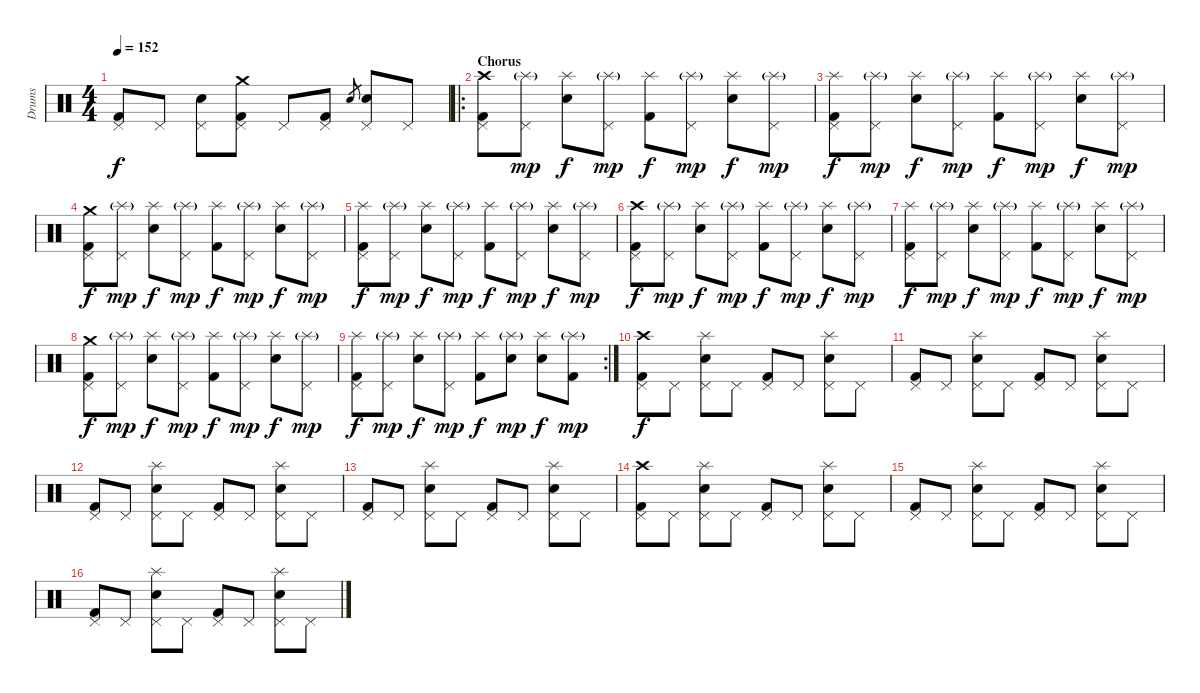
\track ("Drums" "Drums") {instrument percussion}
\staff {score}
\articulation defaults
\ts (4 4)
\tempo 152
\clef neutral
\ks c
("Kick (hit) 2" "Pedal Hi-Hat (hit)").8{dy f} "Pedal Hi-Hat (hit)".8 ("Snare (hit) 2" "Pedal Hi-Hat (hit)").8 ("Kick (hit) 2" "Pedal Hi-Hat (hit)" "Crash medium (hit)").8 "Pedal Hi-Hat (hit)".8 ("Kick (hit) 2" "Pedal Hi-Hat (hit)").8 "Snare (hit) 2".8{gr} ("Snare (hit) 2" "Pedal Hi-Hat (hit)").8 "Pedal Hi-Hat (hit)".8 |
\ro
\section ("" "Chorus")
("Kick (hit) 2" "Pedal Hi-Hat (hit)" "Crash high (hit)").8 ("Pedal Hi-Hat (hit)" "Splash (hit)"{g}).8{dy mp} ("Snare (hit) 2" "Splash (hit)").8{dy f} ("Pedal Hi-Hat (hit)" "Splash (hit)"{g}).8{dy mp} ("Kick (hit) 2" "Splash (hit)").8{dy f} ("Pedal Hi-Hat (hit)" "Splash (hit)"{g}).8{dy mp} ("Snare (hit) 2" "Splash (hit)").8{dy f} ("Pedal Hi-Hat (hit)" "Splash (hit)"{g}).8{dy mp} |
("Kick (hit) 2" "Pedal Hi-Hat (hit)" "Splash (hit)").8{dy f} ("Pedal Hi-Hat (hit)" "Splash (hit)"{g}).8{dy mp} ("Snare (hit) 2" "Splash (hit)").8{dy f} ("Pedal Hi-Hat (hit)" "Splash (hit)"{g}).8{dy mp} ("Kick (hit) 2" "Splash (hit)").8{dy f} ("Pedal Hi-Hat (hit)" "Splash (hit)"{g}).8{dy mp} ("Snare (hit) 2" "Splash (hit)").8{dy f} ("Pedal Hi-Hat (hit)" "Splash (hit)"{g}).8{dy mp} |
("Kick (hit) 2" "Pedal Hi-Hat (hit)" "Crash medium (hit)").8{dy f} ("Pedal Hi-Hat (hit)" "Splash (hit)"{g}).8{dy mp} ("Snare (hit) 2" "Splash (hit)").8{dy f} ("Pedal Hi-Hat (hit)" "Splash (hit)"{g}).8{dy mp} ("Kick (hit) 2" "Splash (hit)").8{dy f} ("Pedal Hi-Hat (hit)" "Splash (hit)"{g}).8{dy mp} ("Snare (hit) 2" "Splash (hit)").8{dy f} ("Pedal Hi-Hat (hit)" "Splash (hit)"{g}).8{dy mp} |
("Kick (hit) 2" "Pedal Hi-Hat (hit)" "Splash (hit)").8{dy f} ("Pedal Hi-Hat (hit)" "Splash (hit)"{g}).8{dy mp} ("Snare (hit) 2" "Splash (hit)").8{dy f} ("Pedal Hi-Hat (hit)" "Splash (hit)"{g}).8{dy mp} ("Kick (hit) 2" "Splash (hit)").8{dy f} ("Pedal Hi-Hat (hit)" "Splash (hit)"{g}).8{dy mp} ("Snare (hit) 2" "Splash (hit)").8{dy f} ("Pedal Hi-Hat (hit)" "Splash (hit)"{g}).8{dy mp} |
("Kick (hit) 2" "Pedal Hi-Hat (hit)" "Crash high (hit)").8{dy f} ("Pedal Hi-Hat (hit)" "Splash (hit)"{g}).8{dy mp} ("Snare (hit) 2" "Splash (hit)").8{dy f} ("Pedal Hi-Hat (hit)" "Splash (hit)"{g}).8{dy mp} ("Kick (hit) 2" "Splash (hit)").8{dy f} ("Pedal Hi-Hat (hit)" "Splash (hit)"{g}).8{dy mp} ("Snare (hit) 2" "Splash (hit)").8{dy f} ("Pedal Hi-Hat (hit)" "Splash (hit)"{g}).8{dy mp} |
("Kick (hit) 2" "Pedal Hi-Hat (hit)" "Splash (hit)").8{dy f} ("Pedal Hi-Hat (hit)" "Splash (hit)"{g}).8{dy mp} ("Snare (hit) 2" "Splash (hit)").8{dy f} ("Pedal Hi-Hat (hit)" "Splash (hit)"{g}).8{dy mp} ("Kick (hit) 2" "Splash (hit)").8{dy f} ("Pedal Hi-Hat (hit)" "Splash (hit)"{g}).8{dy mp} ("Snare (hit) 2" "Splash (hit)").8{dy f} ("Pedal Hi-Hat (hit)" "Splash (hit)"{g}).8{dy mp} |
("Kick (hit) 2" "Pedal Hi-Hat (hit)" "Crash medium (hit)").8{dy f} ("Pedal Hi-Hat (hit)" "Splash (hit)"{g}).8{dy mp} ("Snare (hit) 2" "Splash (hit)").8{dy f} ("Pedal Hi-Hat (hit)" "Splash (hit)"{g}).8{dy mp} ("Kick (hit) 2" "Splash (hit)").8{dy f} ("Pedal Hi-Hat (hit)" "Splash (hit)"{g}).8{dy mp} ("Snare (hit) 2" "Splash (hit)").8{dy f} ("Pedal Hi-Hat (hit)" "Splash (hit)"{g}).8{dy mp} |
\rc 2
("Kick (hit) 2" "Pedal Hi-Hat (hit)" "Splash (hit)").8{dy f} ("Pedal Hi-Hat (hit)" "Splash (hit)"{g}).8{dy mp} ("Snare (hit) 2" "Splash (hit)").8{dy f} ("Pedal Hi-Hat (hit)" "Splash (hit)"{g}).8{dy mp} ("Kick (hit) 2" "Splash (hit)").8{dy f} ("Snare (hit) 2" "Splash (hit)"{g}).8{dy mp} ("Snare (hit) 2" "Splash (hit)").8{dy f} ("Kick (hit) 2" "Splash (hit)"{g}).8{dy mp} |
("Kick (hit) 2" "Pedal Hi-Hat (hit)" "Crash high (hit)").8{dy f} "Pedal Hi-Hat (hit)".8 ("Snare (hit) 2" "Pedal Hi-Hat (hit)" "Splash (hit)").8 "Pedal Hi-Hat (hit)".8 ("Kick (hit) 2" "Pedal Hi-Hat (hit)").8 "Pedal Hi-Hat (hit)".8 ("Snare (hit) 2" "Pedal Hi-Hat (hit)" "Splash (hit)").8 "Pedal Hi-Hat (hit)".8 |
("Kick (hit) 2" "Pedal Hi-Hat (hit)").8 "Pedal Hi-Hat (hit)".8 ("Snare (hit) 2" "Pedal Hi-Hat (hit)" "Splash (hit)").8 "Pedal Hi-Hat (hit)".8 ("Kick (hit) 2" "Pedal Hi-Hat (hit)").8 "Pedal Hi-Hat (hit)".8 ("Snare (hit) 2" "Pedal Hi-Hat (hit)" "Splash (hit)").8 "Pedal Hi-Hat (hit)".8 |
("Kick (hit) 2" "Pedal Hi-Hat (hit)").8 "Pedal Hi-Hat (hit)".8 ("Snare (hit) 2" "Pedal Hi-Hat (hit)" "Splash (hit)").8 "Pedal Hi-Hat (hit)".8 ("Kick (hit) 2" "Pedal Hi-Hat (hit)").8 "Pedal Hi-Hat (hit)".8 ("Snare (hit) 2" "Pedal Hi-Hat (hit)" "Splash (hit)").8 "Pedal Hi-Hat (hit)".8 |
("Kick (hit) 2" "Pedal Hi-Hat (hit)").8 "Pedal Hi-Hat (hit)".8 ("Snare (hit) 2" "Pedal Hi-Hat (hit)" "Splash (hit)").8 "Pedal Hi-Hat (hit)".8 ("Kick (hit) 2" "Pedal Hi-Hat (hit)").8 "Pedal Hi-Hat (hit)".8 ("Snare (hit) 2" "Pedal Hi-Hat (hit)" "Splash (hit)").8 "Pedal Hi-Hat (hit)".8 |
("Kick (hit) 2" "Pedal Hi-Hat (hit)" "Crash high (hit)").8 "Pedal Hi-Hat (hit)".8 ("Snare (hit) 2" "Pedal Hi-Hat (hit)" "Splash (hit)").8 "Pedal Hi-Hat (hit)".8 ("Kick (hit) 2" "Pedal Hi-Hat (hit)").8 "Pedal Hi-Hat (hit)".8 ("Snare (hit) 2" "Pedal Hi-Hat (hit)" "Splash (hit)").8 "Pedal Hi-Hat (hit)".8 |
("Kick (hit) 2" "Pedal Hi-Hat (hit)").8 "Pedal Hi-Hat (hit)".8 ("Snare (hit) 2" "Pedal Hi-Hat (hit)" "Splash (hit)").8 "Pedal Hi-Hat (hit)".8 ("Kick (hit) 2" "Pedal Hi-Hat (hit)").8 "Pedal Hi-Hat (hit)".8 ("Snare (hit) 2" "Pedal Hi-Hat (hit)" "Splash (hit)").8 "Pedal Hi-Hat (hit)".8 |
("Kick (hit) 2" "Pedal Hi-Hat (hit)").8 "Pedal Hi-Hat (hit)".8 ("Snare (hit) 2" "Pedal Hi-Hat (hit)" "Splash (hit)").8 "Pedal Hi-Hat (hit)".8 ("Kick (hit) 2" "Pedal Hi-Hat (hit)").8 "Pedal Hi-Hat (hit)".8 ("Snare (hit) 2" "Pedal Hi-Hat (hit)" "Splash (hit)").8 "Pedal Hi-Hat (hit)".8
